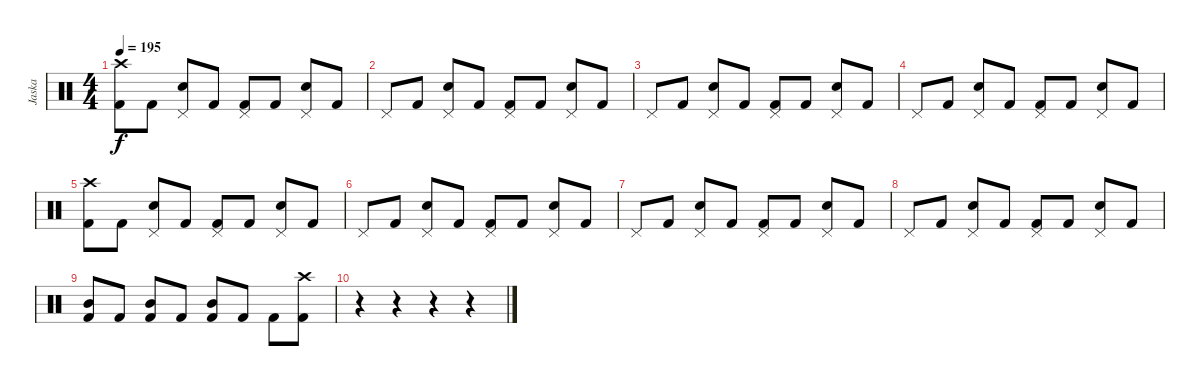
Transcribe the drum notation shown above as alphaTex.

\track ("Jaska" "Jaska") {instrument percussion}
\staff {score}
\articulation defaults
\ts (4 4)
\tempo 195
\clef neutral
\ks c
("Crash high (hit)" "Kick (hit) 2").8{dy f} "Kick (hit) 2".8 ("Pedal Hi-Hat (hit)" "Electric Snare (hit)").8 "Kick (hit) 2".8 ("Pedal Hi-Hat (hit)" "Kick (hit) 2").8 "Kick (hit) 2".8 ("Pedal Hi-Hat (hit)" "Electric Snare (hit)").8 "Kick (hit) 2".8 |
"Pedal Hi-Hat (hit)".8 "Kick (hit) 2".8 ("Pedal Hi-Hat (hit)" "Electric Snare (hit)").8 "Kick (hit) 2".8 ("Pedal Hi-Hat (hit)" "Kick (hit) 2").8 "Kick (hit) 2".8 ("Pedal Hi-Hat (hit)" "Electric Snare (hit)").8 "Kick (hit) 2".8 |
"Pedal Hi-Hat (hit)".8 "Kick (hit) 2".8 ("Pedal Hi-Hat (hit)" "Electric Snare (hit)").8 "Kick (hit) 2".8 ("Pedal Hi-Hat (hit)" "Kick (hit) 2").8 "Kick (hit) 2".8 ("Pedal Hi-Hat (hit)" "Electric Snare (hit)").8 "Kick (hit) 2".8 |
"Pedal Hi-Hat (hit)".8 "Kick (hit) 2".8 ("Pedal Hi-Hat (hit)" "Electric Snare (hit)").8 "Kick (hit) 2".8 ("Pedal Hi-Hat (hit)" "Kick (hit) 2").8 "Kick (hit) 2".8 ("Pedal Hi-Hat (hit)" "Electric Snare (hit)").8 "Kick (hit) 2".8 |
("Crash high (hit)" "Kick (hit) 2").8 "Kick (hit) 2".8 ("Pedal Hi-Hat (hit)" "Electric Snare (hit)").8 "Kick (hit) 2".8 ("Pedal Hi-Hat (hit)" "Kick (hit) 2").8 "Kick (hit) 2".8 ("Pedal Hi-Hat (hit)" "Electric Snare (hit)").8 "Kick (hit) 2".8 |
"Pedal Hi-Hat (hit)".8 "Kick (hit) 2".8 ("Pedal Hi-Hat (hit)" "Electric Snare (hit)").8 "Kick (hit) 2".8 ("Pedal Hi-Hat (hit)" "Kick (hit) 2").8 "Kick (hit) 2".8 ("Pedal Hi-Hat (hit)" "Electric Snare (hit)").8 "Kick (hit) 2".8 |
"Pedal Hi-Hat (hit)".8 "Kick (hit) 2".8 ("Pedal Hi-Hat (hit)" "Electric Snare (hit)").8 "Kick (hit) 2".8 ("Pedal Hi-Hat (hit)" "Kick (hit) 2").8 "Kick (hit) 2".8 ("Pedal Hi-Hat (hit)" "Electric Snare (hit)").8 "Kick (hit) 2".8 |
"Pedal Hi-Hat (hit)".8 "Kick (hit) 2".8 ("Pedal Hi-Hat (hit)" "Electric Snare (hit)").8 "Kick (hit) 2".8 ("Pedal Hi-Hat (hit)" "Kick (hit) 2").8 "Kick (hit) 2".8 ("Pedal Hi-Hat (hit)" "Electric Snare (hit)").8 "Kick (hit) 2".8 |
("Mid Tom (hit)" "Kick (hit) 2").8 "Kick (hit) 2".8 ("Mid Tom (hit)" "Kick (hit) 2").8 "Kick (hit) 2".8 ("Mid Tom (hit)" "Kick (hit) 2").8 "Kick (hit) 2".8 "Kick (hit) 2".8 ("Crash high (hit)" "Kick (hit) 2").8 |
r.4 r.4 r.4 r.4
